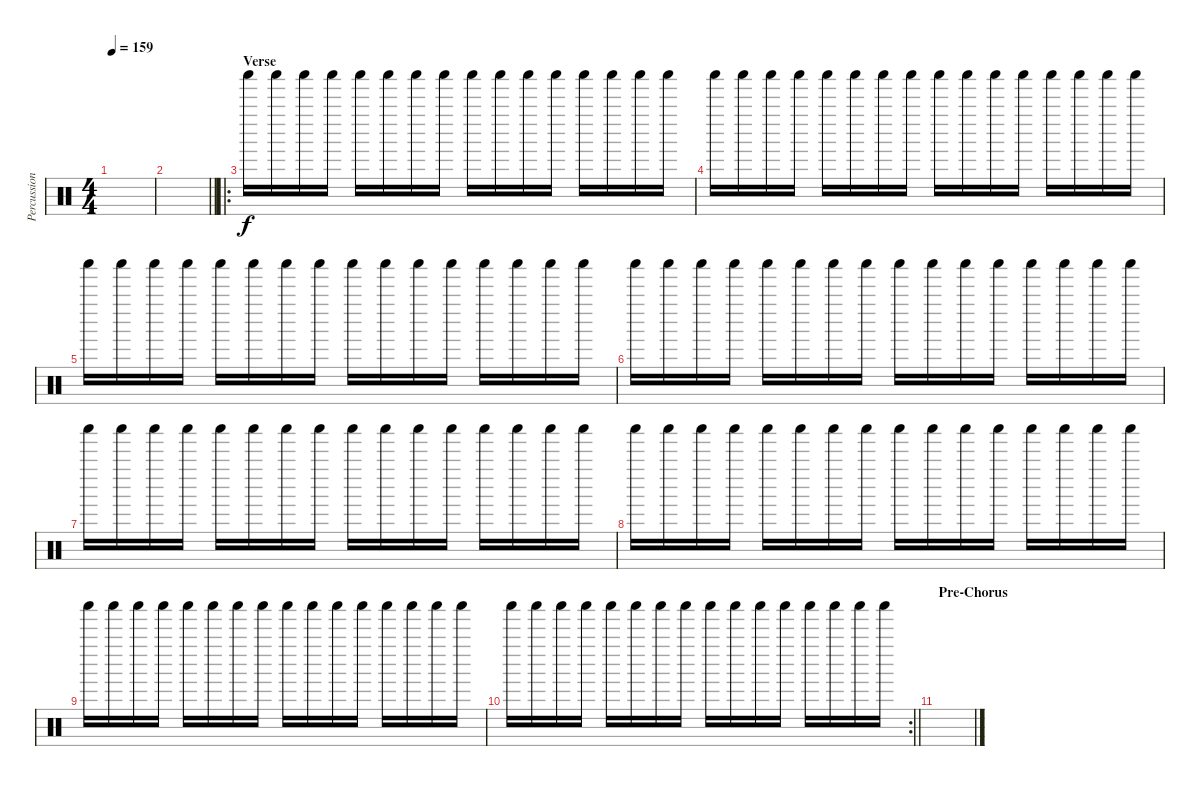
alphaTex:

\track ("Percussion" "Percussion") {instrument percussion}
\staff {score}
\articulation defaults
\ts (4 4)
\tempo 159
\clef neutral
\ks c
|
\barLineRight lightlight
|
\ro
\section ("" "Verse")
"Shaker (hit)".16 "Shaker (hit)".16 "Shaker (hit)".16 "Shaker (hit)".16 "Shaker (hit)".16 "Shaker (hit)".16 "Shaker (hit)".16 "Shaker (hit)".16 "Shaker (hit)".16 "Shaker (hit)".16 "Shaker (hit)".16 "Shaker (hit)".16 "Shaker (hit)".16 "Shaker (hit)".16 "Shaker (hit)".16 "Shaker (hit)".16 |
"Shaker (hit)".16 "Shaker (hit)".16 "Shaker (hit)".16 "Shaker (hit)".16 "Shaker (hit)".16 "Shaker (hit)".16 "Shaker (hit)".16 "Shaker (hit)".16 "Shaker (hit)".16 "Shaker (hit)".16 "Shaker (hit)".16 "Shaker (hit)".16 "Shaker (hit)".16 "Shaker (hit)".16 "Shaker (hit)".16 "Shaker (hit)".16 |
"Shaker (hit)".16 "Shaker (hit)".16 "Shaker (hit)".16 "Shaker (hit)".16 "Shaker (hit)".16 "Shaker (hit)".16 "Shaker (hit)".16 "Shaker (hit)".16 "Shaker (hit)".16 "Shaker (hit)".16 "Shaker (hit)".16 "Shaker (hit)".16 "Shaker (hit)".16 "Shaker (hit)".16 "Shaker (hit)".16 "Shaker (hit)".16 |
"Shaker (hit)".16 "Shaker (hit)".16 "Shaker (hit)".16 "Shaker (hit)".16 "Shaker (hit)".16 "Shaker (hit)".16 "Shaker (hit)".16 "Shaker (hit)".16 "Shaker (hit)".16 "Shaker (hit)".16 "Shaker (hit)".16 "Shaker (hit)".16 "Shaker (hit)".16 "Shaker (hit)".16 "Shaker (hit)".16 "Shaker (hit)".16 |
"Shaker (hit)".16 "Shaker (hit)".16 "Shaker (hit)".16 "Shaker (hit)".16 "Shaker (hit)".16 "Shaker (hit)".16 "Shaker (hit)".16 "Shaker (hit)".16 "Shaker (hit)".16 "Shaker (hit)".16 "Shaker (hit)".16 "Shaker (hit)".16 "Shaker (hit)".16 "Shaker (hit)".16 "Shaker (hit)".16 "Shaker (hit)".16 |
"Shaker (hit)".16 "Shaker (hit)".16 "Shaker (hit)".16 "Shaker (hit)".16 "Shaker (hit)".16 "Shaker (hit)".16 "Shaker (hit)".16 "Shaker (hit)".16 "Shaker (hit)".16 "Shaker (hit)".16 "Shaker (hit)".16 "Shaker (hit)".16 "Shaker (hit)".16 "Shaker (hit)".16 "Shaker (hit)".16 "Shaker (hit)".16 |
"Shaker (hit)".16 "Shaker (hit)".16 "Shaker (hit)".16 "Shaker (hit)".16 "Shaker (hit)".16 "Shaker (hit)".16 "Shaker (hit)".16 "Shaker (hit)".16 "Shaker (hit)".16 "Shaker (hit)".16 "Shaker (hit)".16 "Shaker (hit)".16 "Shaker (hit)".16 "Shaker (hit)".16 "Shaker (hit)".16 "Shaker (hit)".16 |
\rc 2
\barLineRight lightlight "Shaker (hit)".16 "Shaker (hit)".16 "Shaker (hit)".16 "Shaker (hit)".16 "Shaker (hit)".16 "Shaker (hit)".16 "Shaker (hit)".16 "Shaker (hit)".16 "Shaker (hit)".16 "Shaker (hit)".16 "Shaker (hit)".16 "Shaker (hit)".16 "Shaker (hit)".16 "Shaker (hit)".16 "Shaker (hit)".16 "Shaker (hit)".16
|
\section ("" "Pre-Chorus")
